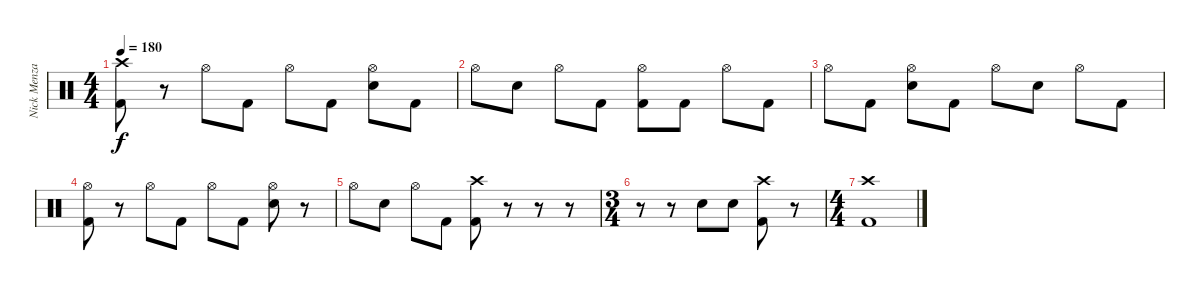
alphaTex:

\track ("Nick Menza" "Nick Menza") {instrument percussion}
\staff {score}
\articulation defaults
\ts (4 4)
\tempo 180
\clef neutral
\ks c
("Crash high (hit)" "Kick (hit) 2").8{dy f} r.8 "Hi-Hat (open)".8 "Kick (hit) 2".8 "Hi-Hat (open)".8 "Kick (hit) 2".8 ("Hi-Hat (open)" "Snare (hit) 2").8 "Kick (hit) 2".8 |
"Hi-Hat (open)".8 "Snare (hit) 2".8 "Hi-Hat (open)".8 "Kick (hit) 2".8 ("Hi-Hat (open)" "Kick (hit) 2").8 "Kick (hit) 2".8 "Hi-Hat (open)".8 "Kick (hit) 2".8 |
"Hi-Hat (open)".8 "Kick (hit) 2".8 ("Hi-Hat (open)" "Snare (hit) 2").8 "Kick (hit) 2".8 "Hi-Hat (open)".8 "Snare (hit) 2".8 "Hi-Hat (open)".8 "Kick (hit) 2".8 |
("Hi-Hat (open)" "Kick (hit) 2").8 r.8 "Hi-Hat (open)".8 "Kick (hit) 2".8 "Hi-Hat (open)".8 "Kick (hit) 2".8 ("Hi-Hat (open)" "Snare (hit) 2").8 r.8 |
"Hi-Hat (open)".8 "Snare (hit) 2".8 "Hi-Hat (open)".8 "Kick (hit) 2".8 ("Crash high (hit)" "Kick (hit) 2").8 r.8 r.8 r.8 |
\ts (3 4)
r.8 r.8 "Snare (hit) 2".8 "Snare (hit) 2".8 ("Crash high (hit)" "Kick (hit) 2").8 r.8 |
\ts (4 4)
("Crash high (hit)" "Kick (hit) 2").1
